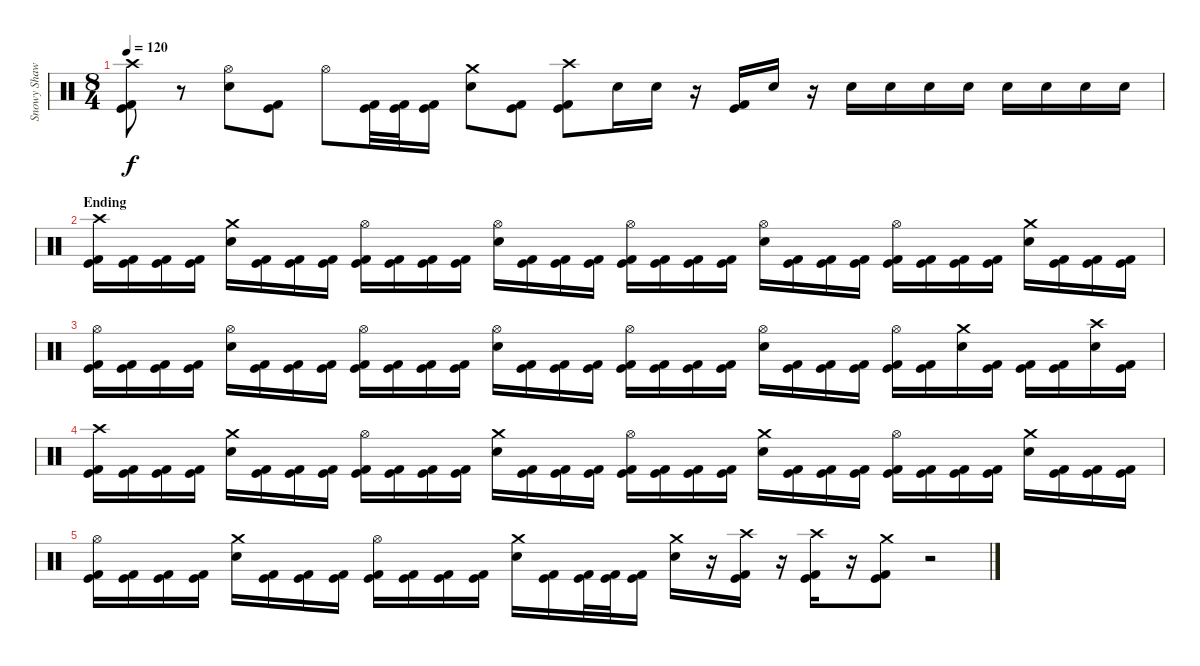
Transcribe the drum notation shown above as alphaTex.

\track ("Snowy Shaw" "Snowy Shaw") {instrument percussion}
\staff {score}
\articulation defaults
\ts (8 4)
\tempo 120
\clef neutral
\ks c
("Crash high (hit)" "Kick (hit)" "Kick (hit) 2").8{dy f} r.8 ("Hi-Hat (open)" "Electric Snare (hit)").8 ("Kick (hit) 2" "Kick (hit)").8 "Hi-Hat (open)".8 ("Kick (hit) 2" "Kick (hit)").32 ("Kick (hit) 2" "Kick (hit)").32 ("Kick (hit) 2" "Kick (hit)").16 ("Crash medium (hit)" "Electric Snare (hit)").8 ("Kick (hit) 2" "Kick (hit)").8 ("Crash high (hit)" "Kick (hit) 2" "Kick (hit)").8 "Electric Snare (hit)".16 "Electric Snare (hit)".16 r.16 ("Kick (hit)" "Kick (hit) 2").16 "Electric Snare (hit)".16 r.16 "Electric Snare (hit)".16 "Electric Snare (hit)".16 "Electric Snare (hit)".16 "Electric Snare (hit)".16 "Electric Snare (hit)".16 "Electric Snare (hit)".16 "Electric Snare (hit)".16 "Electric Snare (hit)".16 |
\section ("" "Ending")
("Crash high (hit)" "Kick (hit)" "Kick (hit) 2").16 ("Kick (hit)" "Kick (hit) 2").16 ("Kick (hit)" "Kick (hit) 2").16 ("Kick (hit)" "Kick (hit) 2").16 ("Crash medium (hit)" "Electric Snare (hit)").16 ("Kick (hit)" "Kick (hit) 2").16 ("Kick (hit)" "Kick (hit) 2").16 ("Kick (hit)" "Kick (hit) 2").16 ("Hi-Hat (open)" "Kick (hit)" "Kick (hit) 2").16 ("Kick (hit)" "Kick (hit) 2").16 ("Kick (hit)" "Kick (hit) 2").16 ("Kick (hit)" "Kick (hit) 2").16 ("Hi-Hat (open)" "Electric Snare (hit)").16 ("Kick (hit)" "Kick (hit) 2").16 ("Kick (hit)" "Kick (hit) 2").16 ("Kick (hit)" "Kick (hit) 2").16 ("Hi-Hat (open)" "Kick (hit)" "Kick (hit) 2").16 ("Kick (hit)" "Kick (hit) 2").16 ("Kick (hit)" "Kick (hit) 2").16 ("Kick (hit)" "Kick (hit) 2").16 ("Hi-Hat (open)" "Electric Snare (hit)").16 ("Kick (hit)" "Kick (hit) 2").16 ("Kick (hit)" "Kick (hit) 2").16 ("Kick (hit)" "Kick (hit) 2").16 ("Hi-Hat (open)" "Kick (hit)" "Kick (hit) 2").16 ("Kick (hit)" "Kick (hit) 2").16 ("Kick (hit)" "Kick (hit) 2").16 ("Kick (hit)" "Kick (hit) 2").16 ("Crash medium (hit)" "Electric Snare (hit)").16 ("Kick (hit)" "Kick (hit) 2").16 ("Kick (hit)" "Kick (hit) 2").16 ("Kick (hit)" "Kick (hit) 2").16 |
("Hi-Hat (open)" "Kick (hit)" "Kick (hit) 2").16 ("Kick (hit)" "Kick (hit) 2").16 ("Kick (hit)" "Kick (hit) 2").16 ("Kick (hit)" "Kick (hit) 2").16 ("Hi-Hat (open)" "Electric Snare (hit)").16 ("Kick (hit)" "Kick (hit) 2").16 ("Kick (hit)" "Kick (hit) 2").16 ("Kick (hit)" "Kick (hit) 2").16 ("Hi-Hat (open)" "Kick (hit)" "Kick (hit) 2").16 ("Kick (hit)" "Kick (hit) 2").16 ("Kick (hit)" "Kick (hit) 2").16 ("Kick (hit)" "Kick (hit) 2").16 ("Hi-Hat (open)" "Electric Snare (hit)").16 ("Kick (hit)" "Kick (hit) 2").16 ("Kick (hit)" "Kick (hit) 2").16 ("Kick (hit)" "Kick (hit) 2").16 ("Hi-Hat (open)" "Kick (hit)" "Kick (hit) 2").16 ("Kick (hit)" "Kick (hit) 2").16 ("Kick (hit)" "Kick (hit) 2").16 ("Kick (hit)" "Kick (hit) 2").16 ("Hi-Hat (open)" "Electric Snare (hit)").16 ("Kick (hit)" "Kick (hit) 2").16 ("Kick (hit)" "Kick (hit) 2").16 ("Kick (hit)" "Kick (hit) 2").16 ("Hi-Hat (open)" "Kick (hit)" "Kick (hit) 2").16 ("Kick (hit)" "Kick (hit) 2").16 ("Crash medium (hit)" "Electric Snare (hit)").16 ("Kick (hit)" "Kick (hit) 2").16 ("Kick (hit) 2" "Kick (hit)").16 ("Kick (hit) 2" "Kick (hit)").16 ("Crash high (hit)" "Electric Snare (hit)").16 ("Kick (hit)" "Kick (hit) 2").16 |
("Crash high (hit)" "Kick (hit)" "Kick (hit) 2").16 ("Kick (hit)" "Kick (hit) 2").16 ("Kick (hit)" "Kick (hit) 2").16 ("Kick (hit)" "Kick (hit) 2").16 ("Crash medium (hit)" "Electric Snare (hit)").16 ("Kick (hit)" "Kick (hit) 2").16 ("Kick (hit)" "Kick (hit) 2").16 ("Kick (hit)" "Kick (hit) 2").16 ("Hi-Hat (open)" "Kick (hit)" "Kick (hit) 2").16 ("Kick (hit)" "Kick (hit) 2").16 ("Kick (hit)" "Kick (hit) 2").16 ("Kick (hit)" "Kick (hit) 2").16 ("Crash medium (hit)" "Electric Snare (hit)").16 ("Kick (hit)" "Kick (hit) 2").16 ("Kick (hit)" "Kick (hit) 2").16 ("Kick (hit)" "Kick (hit) 2").16 ("Hi-Hat (open)" "Kick (hit)" "Kick (hit) 2").16 ("Kick (hit)" "Kick (hit) 2").16 ("Kick (hit)" "Kick (hit) 2").16 ("Kick (hit)" "Kick (hit) 2").16 ("Crash medium (hit)" "Electric Snare (hit)").16 ("Kick (hit)" "Kick (hit) 2").16 ("Kick (hit)" "Kick (hit) 2").16 ("Kick (hit)" "Kick (hit) 2").16 ("Hi-Hat (open)" "Kick (hit)" "Kick (hit) 2").16 ("Kick (hit)" "Kick (hit) 2").16 ("Kick (hit)" "Kick (hit) 2").16 ("Kick (hit)" "Kick (hit) 2").16 ("Crash medium (hit)" "Electric Snare (hit)").16 ("Kick (hit)" "Kick (hit) 2").16 ("Kick (hit)" "Kick (hit) 2").16 ("Kick (hit)" "Kick (hit) 2").16 |
("Hi-Hat (open)" "Kick (hit)" "Kick (hit) 2").16 ("Kick (hit)" "Kick (hit) 2").16 ("Kick (hit)" "Kick (hit) 2").16 ("Kick (hit)" "Kick (hit) 2").16 ("Crash medium (hit)" "Electric Snare (hit)").16 ("Kick (hit)" "Kick (hit) 2").16 ("Kick (hit)" "Kick (hit) 2").16 ("Kick (hit)" "Kick (hit) 2").16 ("Hi-Hat (open)" "Kick (hit)" "Kick (hit) 2").16 ("Kick (hit)" "Kick (hit) 2").16 ("Kick (hit)" "Kick (hit) 2").16 ("Kick (hit)" "Kick (hit) 2").16 ("Crash medium (hit)" "Electric Snare (hit)").16 ("Kick (hit)" "Kick (hit) 2").16 ("Kick (hit)" "Kick (hit) 2").32 ("Kick (hit)" "Kick (hit) 2").32 ("Kick (hit)" "Kick (hit) 2").16 ("Crash medium (hit)" "Electric Snare (hit)").16 r.16 ("Crash high (hit)" "Kick (hit)" "Kick (hit) 2").16 r.16 ("Crash high (hit)" "Kick (hit)" "Kick (hit) 2").16 r.16 ("Crash medium (hit)" "Kick (hit)" "Kick (hit) 2").8 r.2
